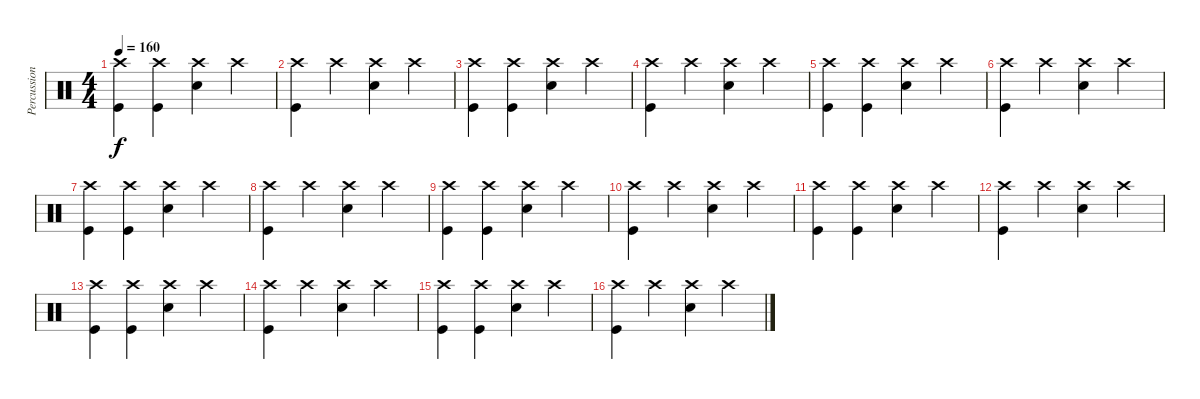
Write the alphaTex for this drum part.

\track ("Percussions" "Percussion") {instrument percussion}
\staff {score}
\articulation defaults
\ts (4 4)
\tempo 160
\clef neutral
\ks c
("Kick (hit)" "Crash high (hit)").4{dy f} ("Kick (hit)" "Crash high (hit)").4 ("Crash high (hit)" "Snare (hit) 2").4 "Crash high (hit)".4 |
("Kick (hit)" "Crash high (hit)").4 "Crash high (hit)".4 ("Snare (hit) 2" "Crash high (hit)").4 "Crash high (hit)".4 |
("Kick (hit)" "Crash high (hit)").4 ("Kick (hit)" "Crash high (hit)").4 ("Crash high (hit)" "Snare (hit) 2").4 "Crash high (hit)".4 |
("Kick (hit)" "Crash high (hit)").4 "Crash high (hit)".4 ("Snare (hit) 2" "Crash high (hit)").4 "Crash high (hit)".4 |
("Kick (hit)" "Crash high (hit)").4 ("Kick (hit)" "Crash high (hit)").4 ("Crash high (hit)" "Snare (hit) 2").4 "Crash high (hit)".4 |
("Kick (hit)" "Crash high (hit)").4 "Crash high (hit)".4 ("Snare (hit) 2" "Crash high (hit)").4 "Crash high (hit)".4 |
("Kick (hit)" "Crash high (hit)").4 ("Kick (hit)" "Crash high (hit)").4 ("Crash high (hit)" "Snare (hit) 2").4 "Crash high (hit)".4 |
("Kick (hit)" "Crash high (hit)").4 "Crash high (hit)".4 ("Snare (hit) 2" "Crash high (hit)").4 "Crash high (hit)".4 |
("Kick (hit)" "Crash high (hit)").4 ("Kick (hit)" "Crash high (hit)").4 ("Crash high (hit)" "Snare (hit) 2").4 "Crash high (hit)".4 |
("Kick (hit)" "Crash high (hit)").4{volume 7} "Crash high (hit)".4 ("Snare (hit) 2" "Crash high (hit)").4 "Crash high (hit)".4 |
("Kick (hit)" "Crash high (hit)").4 ("Kick (hit)" "Crash high (hit)").4 ("Crash high (hit)" "Snare (hit) 2").4 "Crash high (hit)".4 |
("Kick (hit)" "Crash high (hit)").4 "Crash high (hit)".4 ("Snare (hit) 2" "Crash high (hit)").4 "Crash high (hit)".4 |
("Kick (hit)" "Crash high (hit)").4 ("Kick (hit)" "Crash high (hit)").4 ("Crash high (hit)" "Snare (hit) 2").4 "Crash high (hit)".4 |
("Kick (hit)" "Crash high (hit)").4{volume 2} "Crash high (hit)".4 ("Snare (hit) 2" "Crash high (hit)").4 "Crash high (hit)".4 |
("Kick (hit)" "Crash high (hit)").4 ("Kick (hit)" "Crash high (hit)").4 ("Crash high (hit)" "Snare (hit) 2").4 "Crash high (hit)".4 |
("Kick (hit)" "Crash high (hit)").4 "Crash high (hit)".4 ("Snare (hit) 2" "Crash high (hit)").4 "Crash high (hit)".4
